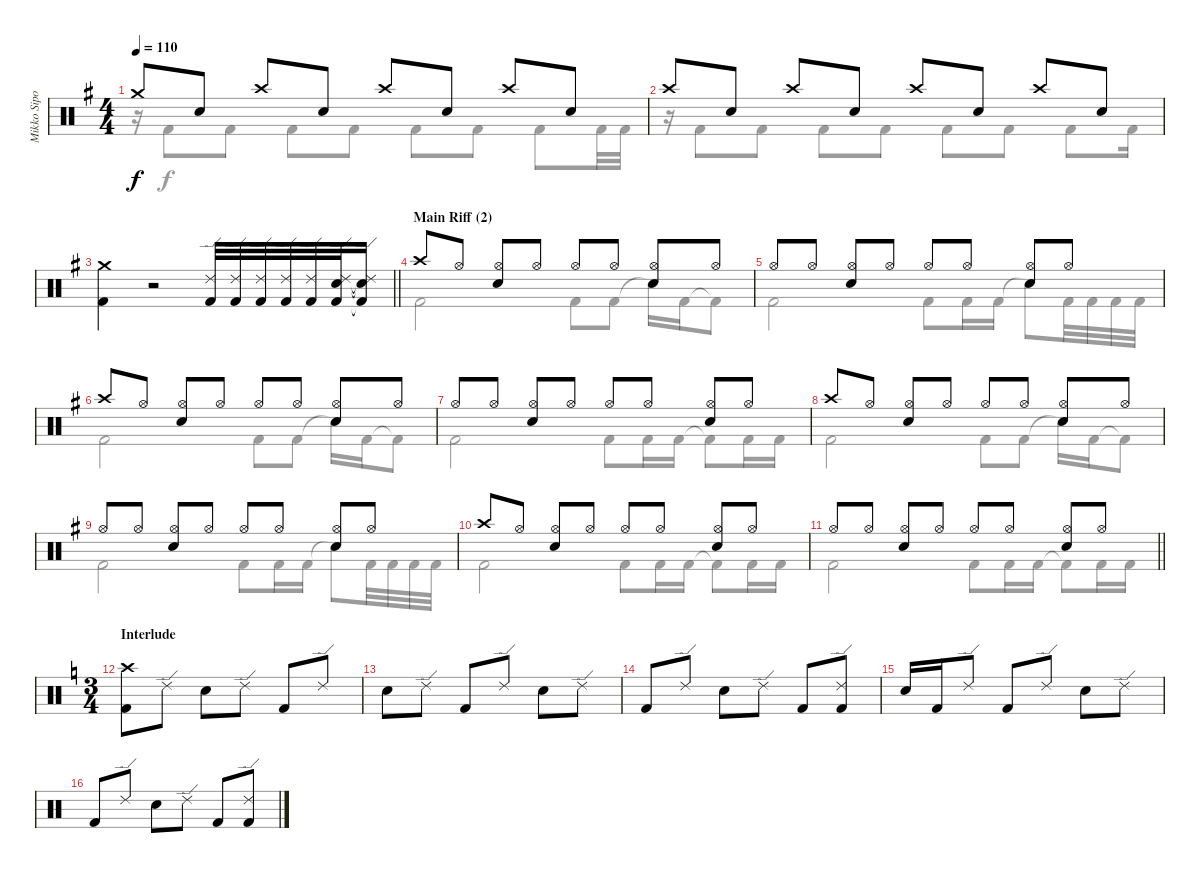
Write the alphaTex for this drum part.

\track ("Mikko Sipola (drums)" "Mikko Sipo") {instrument percussion}
\staff {score}
\articulation defaults
\voice
\ts (4 4)
\tempo 110
\clef neutral
\ks eminor "Crash medium (hit)".8{dy f} "Electric Snare (hit)".8 "Crash high (hit)".8 "Electric Snare (hit)".8 "Crash high (hit)".8 "Electric Snare (hit)".8 "Crash high (hit)".8 "Electric Snare (hit)".8
|
"Crash high (hit)".8 "Electric Snare (hit)".8 "Crash high (hit)".8 "Electric Snare (hit)".8 "Crash high (hit)".8 "Electric Snare (hit)".8 "Crash high (hit)".8 "Electric Snare (hit)".8 |
\barLineRight lightlight
("Crash medium (hit)" "Kick (hit) 2").4 r.2 ("Ride (edge) 2" "Kick (hit) 2").32 ("Ride (edge) 2" "Kick (hit) 2").32 ("Ride (edge) 2" "Kick (hit) 2").32 ("Ride (edge) 2" "Kick (hit) 2").32 ("Ride (edge) 2" "Kick (hit) 2").32 ("Ride (edge) 2" "Electric Snare (hit)" "Kick (hit) 2").32 ("Ride (edge) 2"{t} "Electric Snare (hit)"{t} "Kick (hit) 2"{t}).16 |
\section ("" "Main Riff (2)")
"Crash high (hit)".8 "Hi-Hat (open)".8 ("Electric Snare (hit)" "Hi-Hat (open)").8 "Hi-Hat (open)".8 "Hi-Hat (open)".8 "Hi-Hat (open)".8 ("Electric Snare (hit)" "Hi-Hat (open)").8 "Hi-Hat (open)".8 |
"Hi-Hat (open)".8 "Hi-Hat (open)".8 ("Electric Snare (hit)" "Hi-Hat (open)").8 "Hi-Hat (open)".8 "Hi-Hat (open)".8 "Hi-Hat (open)".8 ("Electric Snare (hit)" "Hi-Hat (open)").8 "Hi-Hat (open)".8 |
"Crash high (hit)".8 "Hi-Hat (open)".8 ("Electric Snare (hit)" "Hi-Hat (open)").8 "Hi-Hat (open)".8 "Hi-Hat (open)".8 "Hi-Hat (open)".8 ("Electric Snare (hit)" "Hi-Hat (open)").8 "Hi-Hat (open)".8 |
"Hi-Hat (open)".8 "Hi-Hat (open)".8 ("Electric Snare (hit)" "Hi-Hat (open)").8 "Hi-Hat (open)".8 "Hi-Hat (open)".8 "Hi-Hat (open)".8 ("Electric Snare (hit)" "Hi-Hat (open)").8 "Hi-Hat (open)".8 |
"Crash high (hit)".8 "Hi-Hat (open)".8 ("Electric Snare (hit)" "Hi-Hat (open)").8 "Hi-Hat (open)".8 "Hi-Hat (open)".8 "Hi-Hat (open)".8 ("Electric Snare (hit)" "Hi-Hat (open)").8 "Hi-Hat (open)".8 |
"Hi-Hat (open)".8 "Hi-Hat (open)".8 ("Electric Snare (hit)" "Hi-Hat (open)").8 "Hi-Hat (open)".8 "Hi-Hat (open)".8 "Hi-Hat (open)".8 ("Electric Snare (hit)" "Hi-Hat (open)").8 "Hi-Hat (open)".8 |
"Crash high (hit)".8 "Hi-Hat (open)".8 ("Electric Snare (hit)" "Hi-Hat (open)").8 "Hi-Hat (open)".8 "Hi-Hat (open)".8 "Hi-Hat (open)".8 ("Electric Snare (hit)" "Hi-Hat (open)").8 "Hi-Hat (open)".8 |
\barLineRight lightlight "Hi-Hat (open)".8 "Hi-Hat (open)".8
("Electric Snare (hit)" "Hi-Hat (open)").8 "Hi-Hat (open)".8 "Hi-Hat (open)".8 "Hi-Hat (open)".8 ("Electric Snare (hit)" "Hi-Hat (open)").8 "Hi-Hat (open)".8 |
\ts (3 4)
\section ("" "Interlude")
\ks aminor
("Crash high (hit)" "Kick (hit) 2").8 "Ride (edge) 2".8 "Electric Snare (hit)".8 "Ride (edge) 2".8 "Kick (hit) 2".8 "Ride (edge) 2".8 |
"Electric Snare (hit)".8 "Ride (edge) 2".8 "Kick (hit) 2".8 "Ride (edge) 2".8 "Electric Snare (hit)".8 "Ride (edge) 2".8 |
"Kick (hit) 2".8 "Ride (edge) 2".8 "Electric Snare (hit)".8 "Ride (edge) 2".8 "Kick (hit) 2".8 ("Ride (edge) 2" "Kick (hit) 2").8 |
"Electric Snare (hit)".16 "Kick (hit) 2".16 "Ride (edge) 2".8 "Kick (hit) 2".8 "Ride (edge) 2".8 "Electric Snare (hit)".8 "Ride (edge) 2".8 |
"Kick (hit) 2".8 "Ride (edge) 2".8 "Electric Snare (hit)".8 "Ride (edge) 2".8 "Kick (hit) 2".8 ("Ride (edge) 2" "Kick (hit) 2").8
\voice
\clef neutral
\ottava regular
\simile none
\ks eminor
r.16{dy f} "Kick (hit) 2".8 "Kick (hit) 2".8 "Kick (hit) 2".8 "Kick (hit) 2".8 "Kick (hit) 2".8 "Kick (hit) 2".8 "Kick (hit) 2".8 "Kick (hit) 2".32 "Kick (hit) 2".32 |
r.16 "Kick (hit) 2".8 "Kick (hit) 2".8 "Kick (hit) 2".8 "Kick (hit) 2".8 "Kick (hit) 2".8 "Kick (hit) 2".8 "Kick (hit) 2".8 "Kick (hit) 2".16 |
\barLineRight lightlight
|
"Kick (hit) 2".2 "Kick (hit) 2".8 "Kick (hit) 2".8 "Snare (hit)"{t}.16 "Kick (hit) 2".16 "Kick (hit) 2"{t}.8 |
"Kick (hit) 2".2 "Kick (hit) 2".8 "Kick (hit) 2".16 "Kick (hit) 2".16 "Snare (hit)"{t}.8 "Kick (hit) 2".32 "Kick (hit) 2".32 "Kick (hit) 2".32 "Kick (hit) 2".32 |
"Kick (hit) 2".2 "Kick (hit) 2".8 "Kick (hit) 2".8 "Snare (hit)"{t}.16 "Kick (hit) 2".16 "Kick (hit) 2"{t}.8 |
"Kick (hit) 2".2 "Kick (hit) 2".8 "Kick (hit) 2".16 "Kick (hit) 2".16 "Kick (hit) 2"{t}.8 "Kick (hit) 2".16 "Kick (hit) 2".16 |
"Kick (hit) 2".2 "Kick (hit) 2".8 "Kick (hit) 2".8 "Snare (hit)"{t}.16 "Kick (hit) 2".16 "Kick (hit) 2"{t}.8 |
"Kick (hit) 2".2 "Kick (hit) 2".8 "Kick (hit) 2".16 "Kick (hit) 2".16 "Snare (hit)"{t}.8 "Kick (hit) 2".32 "Kick (hit) 2".32 "Kick (hit) 2".32 "Kick (hit) 2".32 |
"Kick (hit) 2".2 "Kick (hit) 2".8 "Kick (hit) 2".16 "Kick (hit) 2".16 "Kick (hit) 2"{t}.8 "Kick (hit) 2".16 "Kick (hit) 2".16 |
\barLineRight lightlight "Kick (hit) 2".2 "Kick (hit) 2".8 "Kick (hit) 2".16 "Kick (hit) 2".16 "Kick (hit) 2"{t}.8 "Kick (hit) 2".16 "Kick (hit) 2".16
|
\ks aminor
|
|
|
|
